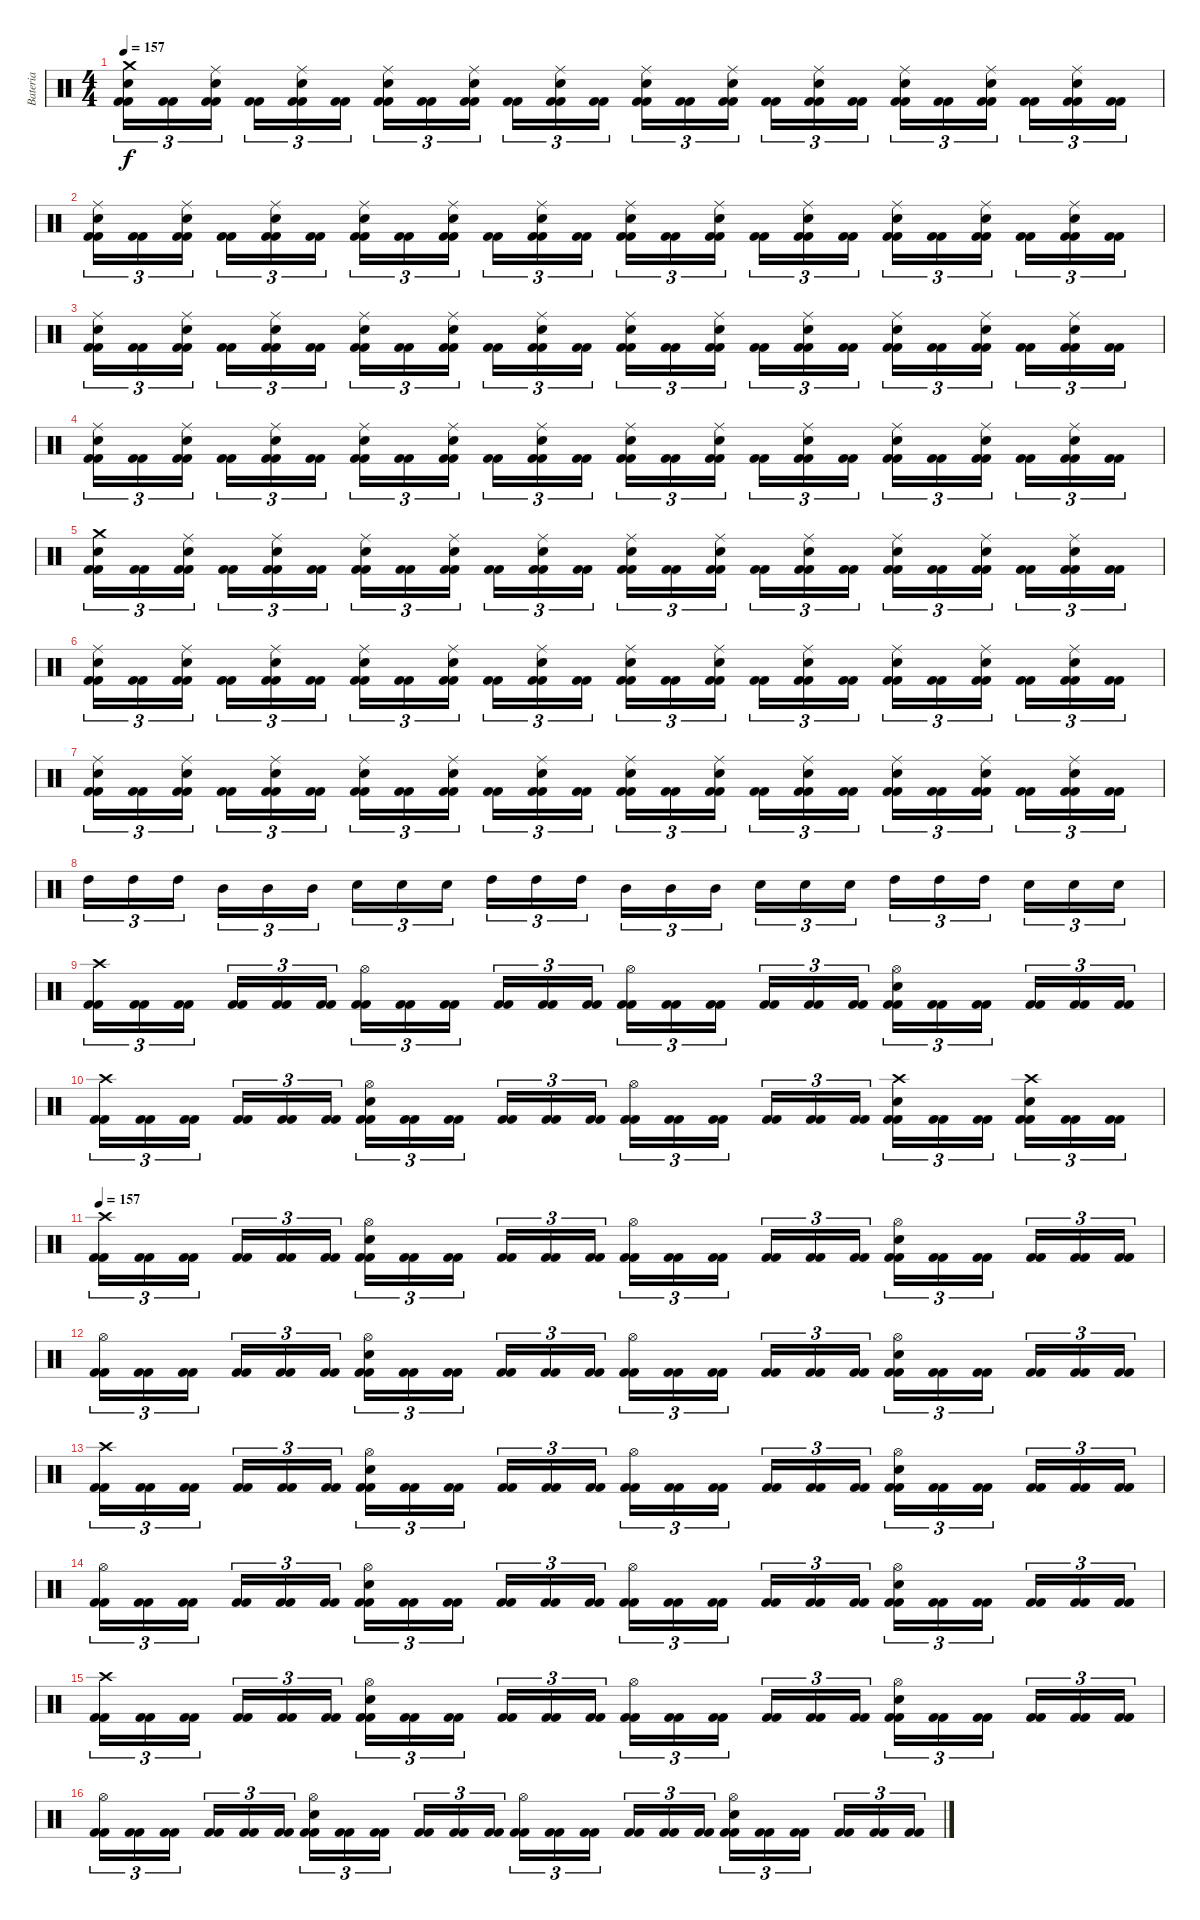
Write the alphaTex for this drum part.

\track ("Bateria" "Bateria") {instrument percussion}
\staff {score}
\articulation defaults
\ts (4 4)
\tempo 157
\clef neutral
\ks c
("Kick (hit) 2" "Kick (hit) 2" "Snare (hit) 2" "Crash medium (hit)").16{tu (3 2) dy f} ("Kick (hit) 2" "Kick (hit) 2").16{tu (3 2)} ("Kick (hit) 2" "Kick (hit) 2" "Snare (hit) 2" "Ride (middle)").16{tu (3 2)} ("Kick (hit) 2" "Kick (hit) 2").16{tu (3 2)} ("Kick (hit) 2" "Kick (hit) 2" "Snare (hit) 2" "Ride (middle)").16{tu (3 2)} ("Kick (hit) 2" "Kick (hit) 2").16{tu (3 2)} ("Kick (hit) 2" "Kick (hit) 2" "Snare (hit) 2" "Ride (middle)").16{tu (3 2)} ("Kick (hit) 2" "Kick (hit) 2").16{tu (3 2)} ("Kick (hit) 2" "Kick (hit) 2" "Snare (hit) 2" "Ride (middle)").16{tu (3 2)} ("Kick (hit) 2" "Kick (hit) 2").16{tu (3 2)} ("Kick (hit) 2" "Kick (hit) 2" "Snare (hit) 2" "Ride (middle)").16{tu (3 2)} ("Kick (hit) 2" "Kick (hit) 2").16{tu (3 2)} ("Kick (hit) 2" "Kick (hit) 2" "Snare (hit) 2" "Ride (middle)").16{tu (3 2)} ("Kick (hit) 2" "Kick (hit) 2").16{tu (3 2)} ("Kick (hit) 2" "Kick (hit) 2" "Snare (hit) 2" "Ride (middle)").16{tu (3 2)} ("Kick (hit) 2" "Kick (hit) 2").16{tu (3 2)} ("Kick (hit) 2" "Kick (hit) 2" "Snare (hit) 2" "Ride (middle)").16{tu (3 2)} ("Kick (hit) 2" "Kick (hit) 2").16{tu (3 2)} ("Kick (hit) 2" "Kick (hit) 2" "Snare (hit) 2" "Ride (middle)").16{tu (3 2)} ("Kick (hit) 2" "Kick (hit) 2").16{tu (3 2)} ("Kick (hit) 2" "Kick (hit) 2" "Snare (hit) 2" "Ride (middle)").16{tu (3 2)} ("Kick (hit) 2" "Kick (hit) 2").16{tu (3 2)} ("Kick (hit) 2" "Kick (hit) 2" "Snare (hit) 2" "Ride (middle)").16{tu (3 2)} ("Kick (hit) 2" "Kick (hit) 2").16{tu (3 2)} |
("Kick (hit) 2" "Kick (hit) 2" "Snare (hit) 2" "Ride (middle)").16{tu (3 2)} ("Kick (hit) 2" "Kick (hit) 2").16{tu (3 2)} ("Kick (hit) 2" "Kick (hit) 2" "Snare (hit) 2" "Ride (middle)").16{tu (3 2)} ("Kick (hit) 2" "Kick (hit) 2").16{tu (3 2)} ("Kick (hit) 2" "Kick (hit) 2" "Snare (hit) 2" "Ride (middle)").16{tu (3 2)} ("Kick (hit) 2" "Kick (hit) 2").16{tu (3 2)} ("Kick (hit) 2" "Kick (hit) 2" "Snare (hit) 2" "Ride (middle)").16{tu (3 2)} ("Kick (hit) 2" "Kick (hit) 2").16{tu (3 2)} ("Kick (hit) 2" "Kick (hit) 2" "Snare (hit) 2" "Ride (middle)").16{tu (3 2)} ("Kick (hit) 2" "Kick (hit) 2").16{tu (3 2)} ("Kick (hit) 2" "Kick (hit) 2" "Snare (hit) 2" "Ride (middle)").16{tu (3 2)} ("Kick (hit) 2" "Kick (hit) 2").16{tu (3 2)} ("Kick (hit) 2" "Kick (hit) 2" "Snare (hit) 2" "Ride (middle)").16{tu (3 2)} ("Kick (hit) 2" "Kick (hit) 2").16{tu (3 2)} ("Kick (hit) 2" "Kick (hit) 2" "Snare (hit) 2" "Ride (middle)").16{tu (3 2)} ("Kick (hit) 2" "Kick (hit) 2").16{tu (3 2)} ("Kick (hit) 2" "Kick (hit) 2" "Snare (hit) 2" "Ride (middle)").16{tu (3 2)} ("Kick (hit) 2" "Kick (hit) 2").16{tu (3 2)} ("Kick (hit) 2" "Kick (hit) 2" "Snare (hit) 2" "Ride (middle)").16{tu (3 2)} ("Kick (hit) 2" "Kick (hit) 2").16{tu (3 2)} ("Kick (hit) 2" "Kick (hit) 2" "Snare (hit) 2" "Ride (middle)").16{tu (3 2)} ("Kick (hit) 2" "Kick (hit) 2").16{tu (3 2)} ("Kick (hit) 2" "Kick (hit) 2" "Snare (hit) 2" "Ride (middle)").16{tu (3 2)} ("Kick (hit) 2" "Kick (hit) 2").16{tu (3 2)} |
("Kick (hit) 2" "Kick (hit) 2" "Snare (hit) 2" "Ride (middle)").16{tu (3 2)} ("Kick (hit) 2" "Kick (hit) 2").16{tu (3 2)} ("Kick (hit) 2" "Kick (hit) 2" "Snare (hit) 2" "Ride (middle)").16{tu (3 2)} ("Kick (hit) 2" "Kick (hit) 2").16{tu (3 2)} ("Kick (hit) 2" "Kick (hit) 2" "Snare (hit) 2" "Ride (middle)").16{tu (3 2)} ("Kick (hit) 2" "Kick (hit) 2").16{tu (3 2)} ("Kick (hit) 2" "Kick (hit) 2" "Snare (hit) 2" "Ride (middle)").16{tu (3 2)} ("Kick (hit) 2" "Kick (hit) 2").16{tu (3 2)} ("Kick (hit) 2" "Kick (hit) 2" "Snare (hit) 2" "Ride (middle)").16{tu (3 2)} ("Kick (hit) 2" "Kick (hit) 2").16{tu (3 2)} ("Kick (hit) 2" "Kick (hit) 2" "Snare (hit) 2" "Ride (middle)").16{tu (3 2)} ("Kick (hit) 2" "Kick (hit) 2").16{tu (3 2)} ("Kick (hit) 2" "Kick (hit) 2" "Snare (hit) 2" "Ride (middle)").16{tu (3 2)} ("Kick (hit) 2" "Kick (hit) 2").16{tu (3 2)} ("Kick (hit) 2" "Kick (hit) 2" "Snare (hit) 2" "Ride (middle)").16{tu (3 2)} ("Kick (hit) 2" "Kick (hit) 2").16{tu (3 2)} ("Kick (hit) 2" "Kick (hit) 2" "Snare (hit) 2" "Ride (middle)").16{tu (3 2)} ("Kick (hit) 2" "Kick (hit) 2").16{tu (3 2)} ("Kick (hit) 2" "Kick (hit) 2" "Snare (hit) 2" "Ride (middle)").16{tu (3 2)} ("Kick (hit) 2" "Kick (hit) 2").16{tu (3 2)} ("Kick (hit) 2" "Kick (hit) 2" "Snare (hit) 2" "Ride (middle)").16{tu (3 2)} ("Kick (hit) 2" "Kick (hit) 2").16{tu (3 2)} ("Kick (hit) 2" "Kick (hit) 2" "Snare (hit) 2" "Ride (middle)").16{tu (3 2)} ("Kick (hit) 2" "Kick (hit) 2").16{tu (3 2)} |
("Kick (hit) 2" "Kick (hit) 2" "Snare (hit) 2" "Ride (middle)").16{tu (3 2)} ("Kick (hit) 2" "Kick (hit) 2").16{tu (3 2)} ("Kick (hit) 2" "Kick (hit) 2" "Snare (hit) 2" "Ride (middle)").16{tu (3 2)} ("Kick (hit) 2" "Kick (hit) 2").16{tu (3 2)} ("Kick (hit) 2" "Kick (hit) 2" "Snare (hit) 2" "Ride (middle)").16{tu (3 2)} ("Kick (hit) 2" "Kick (hit) 2").16{tu (3 2)} ("Kick (hit) 2" "Kick (hit) 2" "Snare (hit) 2" "Ride (middle)").16{tu (3 2)} ("Kick (hit) 2" "Kick (hit) 2").16{tu (3 2)} ("Kick (hit) 2" "Kick (hit) 2" "Snare (hit) 2" "Ride (middle)").16{tu (3 2)} ("Kick (hit) 2" "Kick (hit) 2").16{tu (3 2)} ("Kick (hit) 2" "Kick (hit) 2" "Snare (hit) 2" "Ride (middle)").16{tu (3 2)} ("Kick (hit) 2" "Kick (hit) 2").16{tu (3 2)} ("Kick (hit) 2" "Kick (hit) 2" "Snare (hit) 2" "Ride (middle)").16{tu (3 2)} ("Kick (hit) 2" "Kick (hit) 2").16{tu (3 2)} ("Kick (hit) 2" "Kick (hit) 2" "Snare (hit) 2" "Ride (middle)").16{tu (3 2)} ("Kick (hit) 2" "Kick (hit) 2").16{tu (3 2)} ("Kick (hit) 2" "Kick (hit) 2" "Snare (hit) 2" "Ride (middle)").16{tu (3 2)} ("Kick (hit) 2" "Kick (hit) 2").16{tu (3 2)} ("Kick (hit) 2" "Kick (hit) 2" "Snare (hit) 2" "Ride (middle)").16{tu (3 2)} ("Kick (hit) 2" "Kick (hit) 2").16{tu (3 2)} ("Kick (hit) 2" "Kick (hit) 2" "Snare (hit) 2" "Ride (middle)").16{tu (3 2)} ("Kick (hit) 2" "Kick (hit) 2").16{tu (3 2)} ("Kick (hit) 2" "Kick (hit) 2" "Snare (hit) 2" "Ride (middle)").16{tu (3 2)} ("Kick (hit) 2" "Kick (hit) 2").16{tu (3 2)} |
("Kick (hit) 2" "Kick (hit) 2" "Snare (hit) 2" "Crash medium (hit)").16{tu (3 2)} ("Kick (hit) 2" "Kick (hit) 2").16{tu (3 2)} ("Kick (hit) 2" "Kick (hit) 2" "Snare (hit) 2" "Ride (middle)").16{tu (3 2)} ("Kick (hit) 2" "Kick (hit) 2").16{tu (3 2)} ("Kick (hit) 2" "Kick (hit) 2" "Snare (hit) 2" "Ride (middle)").16{tu (3 2)} ("Kick (hit) 2" "Kick (hit) 2").16{tu (3 2)} ("Kick (hit) 2" "Kick (hit) 2" "Snare (hit) 2" "Ride (middle)").16{tu (3 2)} ("Kick (hit) 2" "Kick (hit) 2").16{tu (3 2)} ("Kick (hit) 2" "Kick (hit) 2" "Snare (hit) 2" "Ride (middle)").16{tu (3 2)} ("Kick (hit) 2" "Kick (hit) 2").16{tu (3 2)} ("Kick (hit) 2" "Kick (hit) 2" "Snare (hit) 2" "Ride (middle)").16{tu (3 2)} ("Kick (hit) 2" "Kick (hit) 2").16{tu (3 2)} ("Kick (hit) 2" "Kick (hit) 2" "Snare (hit) 2" "Ride (middle)").16{tu (3 2)} ("Kick (hit) 2" "Kick (hit) 2").16{tu (3 2)} ("Kick (hit) 2" "Kick (hit) 2" "Snare (hit) 2" "Ride (middle)").16{tu (3 2)} ("Kick (hit) 2" "Kick (hit) 2").16{tu (3 2)} ("Kick (hit) 2" "Kick (hit) 2" "Snare (hit) 2" "Ride (middle)").16{tu (3 2)} ("Kick (hit) 2" "Kick (hit) 2").16{tu (3 2)} ("Kick (hit) 2" "Kick (hit) 2" "Snare (hit) 2" "Ride (middle)").16{tu (3 2)} ("Kick (hit) 2" "Kick (hit) 2").16{tu (3 2)} ("Kick (hit) 2" "Kick (hit) 2" "Snare (hit) 2" "Ride (middle)").16{tu (3 2)} ("Kick (hit) 2" "Kick (hit) 2").16{tu (3 2)} ("Kick (hit) 2" "Kick (hit) 2" "Snare (hit) 2" "Ride (middle)").16{tu (3 2)} ("Kick (hit) 2" "Kick (hit) 2").16{tu (3 2)} |
("Kick (hit) 2" "Kick (hit) 2" "Snare (hit) 2" "Ride (middle)").16{tu (3 2)} ("Kick (hit) 2" "Kick (hit) 2").16{tu (3 2)} ("Kick (hit) 2" "Kick (hit) 2" "Snare (hit) 2" "Ride (middle)").16{tu (3 2)} ("Kick (hit) 2" "Kick (hit) 2").16{tu (3 2)} ("Kick (hit) 2" "Kick (hit) 2" "Snare (hit) 2" "Ride (middle)").16{tu (3 2)} ("Kick (hit) 2" "Kick (hit) 2").16{tu (3 2)} ("Kick (hit) 2" "Kick (hit) 2" "Snare (hit) 2" "Ride (middle)").16{tu (3 2)} ("Kick (hit) 2" "Kick (hit) 2").16{tu (3 2)} ("Kick (hit) 2" "Kick (hit) 2" "Snare (hit) 2" "Ride (middle)").16{tu (3 2)} ("Kick (hit) 2" "Kick (hit) 2").16{tu (3 2)} ("Kick (hit) 2" "Kick (hit) 2" "Snare (hit) 2" "Ride (middle)").16{tu (3 2)} ("Kick (hit) 2" "Kick (hit) 2").16{tu (3 2)} ("Kick (hit) 2" "Kick (hit) 2" "Snare (hit) 2" "Ride (middle)").16{tu (3 2)} ("Kick (hit) 2" "Kick (hit) 2").16{tu (3 2)} ("Kick (hit) 2" "Kick (hit) 2" "Snare (hit) 2" "Ride (middle)").16{tu (3 2)} ("Kick (hit) 2" "Kick (hit) 2").16{tu (3 2)} ("Kick (hit) 2" "Kick (hit) 2" "Snare (hit) 2" "Ride (middle)").16{tu (3 2)} ("Kick (hit) 2" "Kick (hit) 2").16{tu (3 2)} ("Kick (hit) 2" "Kick (hit) 2" "Snare (hit) 2" "Ride (middle)").16{tu (3 2)} ("Kick (hit) 2" "Kick (hit) 2").16{tu (3 2)} ("Kick (hit) 2" "Kick (hit) 2" "Snare (hit) 2" "Ride (middle)").16{tu (3 2)} ("Kick (hit) 2" "Kick (hit) 2").16{tu (3 2)} ("Kick (hit) 2" "Kick (hit) 2" "Snare (hit) 2" "Ride (middle)").16{tu (3 2)} ("Kick (hit) 2" "Kick (hit) 2").16{tu (3 2)} |
("Kick (hit) 2" "Kick (hit) 2" "Snare (hit) 2" "Ride (middle)").16{tu (3 2)} ("Kick (hit) 2" "Kick (hit) 2").16{tu (3 2)} ("Kick (hit) 2" "Kick (hit) 2" "Snare (hit) 2" "Ride (middle)").16{tu (3 2)} ("Kick (hit) 2" "Kick (hit) 2").16{tu (3 2)} ("Kick (hit) 2" "Kick (hit) 2" "Snare (hit) 2" "Ride (middle)").16{tu (3 2)} ("Kick (hit) 2" "Kick (hit) 2").16{tu (3 2)} ("Kick (hit) 2" "Kick (hit) 2" "Snare (hit) 2" "Ride (middle)").16{tu (3 2)} ("Kick (hit) 2" "Kick (hit) 2").16{tu (3 2)} ("Kick (hit) 2" "Kick (hit) 2" "Snare (hit) 2" "Ride (middle)").16{tu (3 2)} ("Kick (hit) 2" "Kick (hit) 2").16{tu (3 2)} ("Kick (hit) 2" "Kick (hit) 2" "Snare (hit) 2" "Ride (middle)").16{tu (3 2)} ("Kick (hit) 2" "Kick (hit) 2").16{tu (3 2)} ("Kick (hit) 2" "Kick (hit) 2" "Snare (hit) 2" "Ride (middle)").16{tu (3 2)} ("Kick (hit) 2" "Kick (hit) 2").16{tu (3 2)} ("Kick (hit) 2" "Kick (hit) 2" "Snare (hit) 2" "Ride (middle)").16{tu (3 2)} ("Kick (hit) 2" "Kick (hit) 2").16{tu (3 2)} ("Kick (hit) 2" "Kick (hit) 2" "Snare (hit) 2" "Ride (middle)").16{tu (3 2)} ("Kick (hit) 2" "Kick (hit) 2").16{tu (3 2)} ("Kick (hit) 2" "Kick (hit) 2" "Snare (hit) 2" "Ride (middle)").16{tu (3 2)} ("Kick (hit) 2" "Kick (hit) 2").16{tu (3 2)} ("Kick (hit) 2" "Kick (hit) 2" "Snare (hit) 2" "Ride (middle)").16{tu (3 2)} ("Kick (hit) 2" "Kick (hit) 2").16{tu (3 2)} ("Kick (hit) 2" "Kick (hit) 2" "Snare (hit) 2" "Ride (middle)").16{tu (3 2)} ("Kick (hit) 2" "Kick (hit) 2").16{tu (3 2)} |
"High Tom (hit)".16{tu (3 2)} "High Tom (hit)".16{tu (3 2)} "High Tom (hit)".16{tu (3 2)} "Mid Tom (hit)".16{tu (3 2)} "Mid Tom (hit)".16{tu (3 2)} "Mid Tom (hit)".16{tu (3 2)} "Snare (hit) 2".16{tu (3 2)} "Snare (hit) 2".16{tu (3 2)} "Snare (hit) 2".16{tu (3 2)} "High Tom (hit)".16{tu (3 2)} "High Tom (hit)".16{tu (3 2)} "High Tom (hit)".16{tu (3 2)} "Mid Tom (hit)".16{tu (3 2)} "Mid Tom (hit)".16{tu (3 2)} "Mid Tom (hit)".16{tu (3 2)} "Snare (hit) 2".16{tu (3 2)} "Snare (hit) 2".16{tu (3 2)} "Snare (hit) 2".16{tu (3 2)} "High Tom (hit)".16{tu (3 2)} "High Tom (hit)".16{tu (3 2)} "High Tom (hit)".16{tu (3 2)} "Snare (hit) 2".16{tu (3 2)} "Snare (hit) 2".16{tu (3 2)} "Snare (hit) 2".16{tu (3 2)} |
("Kick (hit) 2" "Kick (hit) 2" "Crash high (hit)").16{tu (3 2)} ("Kick (hit) 2" "Kick (hit) 2").16{tu (3 2)} ("Kick (hit) 2" "Kick (hit) 2").16{tu (3 2)} ("Kick (hit) 2" "Kick (hit) 2").16{tu (3 2)} ("Kick (hit) 2" "Kick (hit) 2").16{tu (3 2)} ("Kick (hit) 2" "Kick (hit) 2").16{tu (3 2)} ("Kick (hit) 2" "Kick (hit) 2" "Hi-Hat (open)").16{tu (3 2)} ("Kick (hit) 2" "Kick (hit) 2").16{tu (3 2)} ("Kick (hit) 2" "Kick (hit) 2").16{tu (3 2)} ("Kick (hit) 2" "Kick (hit) 2").16{tu (3 2)} ("Kick (hit) 2" "Kick (hit) 2").16{tu (3 2)} ("Kick (hit) 2" "Kick (hit) 2").16{tu (3 2)} ("Kick (hit) 2" "Kick (hit) 2" "Hi-Hat (open)").16{tu (3 2)} ("Kick (hit) 2" "Kick (hit) 2").16{tu (3 2)} ("Kick (hit) 2" "Kick (hit) 2").16{tu (3 2)} ("Kick (hit) 2" "Kick (hit) 2").16{tu (3 2)} ("Kick (hit) 2" "Kick (hit) 2").16{tu (3 2)} ("Kick (hit) 2" "Kick (hit) 2").16{tu (3 2)} ("Kick (hit) 2" "Kick (hit) 2" "Snare (hit) 2" "Hi-Hat (open)").16{tu (3 2)} ("Kick (hit) 2" "Kick (hit) 2").16{tu (3 2)} ("Kick (hit) 2" "Kick (hit) 2").16{tu (3 2)} ("Kick (hit) 2" "Kick (hit) 2").16{tu (3 2)} ("Kick (hit) 2" "Kick (hit) 2").16{tu (3 2)} ("Kick (hit) 2" "Kick (hit) 2").16{tu (3 2)} |
("Kick (hit) 2" "Kick (hit) 2" "Crash high (hit)").16{tu (3 2)} ("Kick (hit) 2" "Kick (hit) 2").16{tu (3 2)} ("Kick (hit) 2" "Kick (hit) 2").16{tu (3 2)} ("Kick (hit) 2" "Kick (hit) 2").16{tu (3 2)} ("Kick (hit) 2" "Kick (hit) 2").16{tu (3 2)} ("Kick (hit) 2" "Kick (hit) 2").16{tu (3 2)} ("Kick (hit) 2" "Kick (hit) 2" "Snare (hit) 2" "Hi-Hat (open)").16{tu (3 2)} ("Kick (hit) 2" "Kick (hit) 2").16{tu (3 2)} ("Kick (hit) 2" "Kick (hit) 2").16{tu (3 2)} ("Kick (hit) 2" "Kick (hit) 2").16{tu (3 2)} ("Kick (hit) 2" "Kick (hit) 2").16{tu (3 2)} ("Kick (hit) 2" "Kick (hit) 2").16{tu (3 2)} ("Kick (hit) 2" "Kick (hit) 2" "Hi-Hat (open)").16{tu (3 2)} ("Kick (hit) 2" "Kick (hit) 2").16{tu (3 2)} ("Kick (hit) 2" "Kick (hit) 2").16{tu (3 2)} ("Kick (hit) 2" "Kick (hit) 2").16{tu (3 2)} ("Kick (hit) 2" "Kick (hit) 2").16{tu (3 2)} ("Kick (hit) 2" "Kick (hit) 2").16{tu (3 2)} ("Kick (hit) 2" "Kick (hit) 2" "Snare (hit) 2" "Crash high (hit)").16{tu (3 2)} ("Kick (hit) 2" "Kick (hit) 2").16{tu (3 2)} ("Kick (hit) 2" "Kick (hit) 2").16{tu (3 2)} ("Kick (hit) 2" "Kick (hit) 2" "Snare (hit) 2" "Crash high (hit)").16{tu (3 2)} ("Kick (hit) 2" "Kick (hit) 2").16{tu (3 2)} ("Kick (hit) 2" "Kick (hit) 2").16{tu (3 2)} |
\tempo 157
("Kick (hit) 2" "Kick (hit) 2" "Crash high (hit)").16{tu (3 2)} ("Kick (hit) 2" "Kick (hit) 2").16{tu (3 2)} ("Kick (hit) 2" "Kick (hit) 2").16{tu (3 2)} ("Kick (hit) 2" "Kick (hit) 2").16{tu (3 2)} ("Kick (hit) 2" "Kick (hit) 2").16{tu (3 2)} ("Kick (hit) 2" "Kick (hit) 2").16{tu (3 2)} ("Kick (hit) 2" "Kick (hit) 2" "Snare (hit) 2" "Hi-Hat (open)").16{tu (3 2)} ("Kick (hit) 2" "Kick (hit) 2").16{tu (3 2)} ("Kick (hit) 2" "Kick (hit) 2").16{tu (3 2)} ("Kick (hit) 2" "Kick (hit) 2").16{tu (3 2)} ("Kick (hit) 2" "Kick (hit) 2").16{tu (3 2)} ("Kick (hit) 2" "Kick (hit) 2").16{tu (3 2)} ("Kick (hit) 2" "Kick (hit) 2" "Hi-Hat (open)").16{tu (3 2)} ("Kick (hit) 2" "Kick (hit) 2").16{tu (3 2)} ("Kick (hit) 2" "Kick (hit) 2").16{tu (3 2)} ("Kick (hit) 2" "Kick (hit) 2").16{tu (3 2)} ("Kick (hit) 2" "Kick (hit) 2").16{tu (3 2)} ("Kick (hit) 2" "Kick (hit) 2").16{tu (3 2)} ("Kick (hit) 2" "Kick (hit) 2" "Snare (hit) 2" "Hi-Hat (open)").16{tu (3 2)} ("Kick (hit) 2" "Kick (hit) 2").16{tu (3 2)} ("Kick (hit) 2" "Kick (hit) 2").16{tu (3 2)} ("Kick (hit) 2" "Kick (hit) 2").16{tu (3 2)} ("Kick (hit) 2" "Kick (hit) 2").16{tu (3 2)} ("Kick (hit) 2" "Kick (hit) 2").16{tu (3 2)} |
("Kick (hit) 2" "Kick (hit) 2" "Hi-Hat (open)").16{tu (3 2)} ("Kick (hit) 2" "Kick (hit) 2").16{tu (3 2)} ("Kick (hit) 2" "Kick (hit) 2").16{tu (3 2)} ("Kick (hit) 2" "Kick (hit) 2").16{tu (3 2)} ("Kick (hit) 2" "Kick (hit) 2").16{tu (3 2)} ("Kick (hit) 2" "Kick (hit) 2").16{tu (3 2)} ("Kick (hit) 2" "Kick (hit) 2" "Snare (hit) 2" "Hi-Hat (open)").16{tu (3 2)} ("Kick (hit) 2" "Kick (hit) 2").16{tu (3 2)} ("Kick (hit) 2" "Kick (hit) 2").16{tu (3 2)} ("Kick (hit) 2" "Kick (hit) 2").16{tu (3 2)} ("Kick (hit) 2" "Kick (hit) 2").16{tu (3 2)} ("Kick (hit) 2" "Kick (hit) 2").16{tu (3 2)} ("Kick (hit) 2" "Kick (hit) 2" "Hi-Hat (open)").16{tu (3 2)} ("Kick (hit) 2" "Kick (hit) 2").16{tu (3 2)} ("Kick (hit) 2" "Kick (hit) 2").16{tu (3 2)} ("Kick (hit) 2" "Kick (hit) 2").16{tu (3 2)} ("Kick (hit) 2" "Kick (hit) 2").16{tu (3 2)} ("Kick (hit) 2" "Kick (hit) 2").16{tu (3 2)} ("Kick (hit) 2" "Kick (hit) 2" "Snare (hit) 2" "Hi-Hat (open)").16{tu (3 2)} ("Kick (hit) 2" "Kick (hit) 2").16{tu (3 2)} ("Kick (hit) 2" "Kick (hit) 2").16{tu (3 2)} ("Kick (hit) 2" "Kick (hit) 2").16{tu (3 2)} ("Kick (hit) 2" "Kick (hit) 2").16{tu (3 2)} ("Kick (hit) 2" "Kick (hit) 2").16{tu (3 2)} |
("Kick (hit) 2" "Kick (hit) 2" "Crash high (hit)").16{tu (3 2)} ("Kick (hit) 2" "Kick (hit) 2").16{tu (3 2)} ("Kick (hit) 2" "Kick (hit) 2").16{tu (3 2)} ("Kick (hit) 2" "Kick (hit) 2").16{tu (3 2)} ("Kick (hit) 2" "Kick (hit) 2").16{tu (3 2)} ("Kick (hit) 2" "Kick (hit) 2").16{tu (3 2)} ("Kick (hit) 2" "Kick (hit) 2" "Snare (hit) 2" "Hi-Hat (open)").16{tu (3 2)} ("Kick (hit) 2" "Kick (hit) 2").16{tu (3 2)} ("Kick (hit) 2" "Kick (hit) 2").16{tu (3 2)} ("Kick (hit) 2" "Kick (hit) 2").16{tu (3 2)} ("Kick (hit) 2" "Kick (hit) 2").16{tu (3 2)} ("Kick (hit) 2" "Kick (hit) 2").16{tu (3 2)} ("Kick (hit) 2" "Kick (hit) 2" "Hi-Hat (open)").16{tu (3 2)} ("Kick (hit) 2" "Kick (hit) 2").16{tu (3 2)} ("Kick (hit) 2" "Kick (hit) 2").16{tu (3 2)} ("Kick (hit) 2" "Kick (hit) 2").16{tu (3 2)} ("Kick (hit) 2" "Kick (hit) 2").16{tu (3 2)} ("Kick (hit) 2" "Kick (hit) 2").16{tu (3 2)} ("Kick (hit) 2" "Kick (hit) 2" "Snare (hit) 2" "Hi-Hat (open)").16{tu (3 2)} ("Kick (hit) 2" "Kick (hit) 2").16{tu (3 2)} ("Kick (hit) 2" "Kick (hit) 2").16{tu (3 2)} ("Kick (hit) 2" "Kick (hit) 2").16{tu (3 2)} ("Kick (hit) 2" "Kick (hit) 2").16{tu (3 2)} ("Kick (hit) 2" "Kick (hit) 2").16{tu (3 2)} |
("Kick (hit) 2" "Kick (hit) 2" "Hi-Hat (open)").16{tu (3 2)} ("Kick (hit) 2" "Kick (hit) 2").16{tu (3 2)} ("Kick (hit) 2" "Kick (hit) 2").16{tu (3 2)} ("Kick (hit) 2" "Kick (hit) 2").16{tu (3 2)} ("Kick (hit) 2" "Kick (hit) 2").16{tu (3 2)} ("Kick (hit) 2" "Kick (hit) 2").16{tu (3 2)} ("Kick (hit) 2" "Kick (hit) 2" "Snare (hit) 2" "Hi-Hat (open)").16{tu (3 2)} ("Kick (hit) 2" "Kick (hit) 2").16{tu (3 2)} ("Kick (hit) 2" "Kick (hit) 2").16{tu (3 2)} ("Kick (hit) 2" "Kick (hit) 2").16{tu (3 2)} ("Kick (hit) 2" "Kick (hit) 2").16{tu (3 2)} ("Kick (hit) 2" "Kick (hit) 2").16{tu (3 2)} ("Kick (hit) 2" "Kick (hit) 2" "Hi-Hat (open)").16{tu (3 2)} ("Kick (hit) 2" "Kick (hit) 2").16{tu (3 2)} ("Kick (hit) 2" "Kick (hit) 2").16{tu (3 2)} ("Kick (hit) 2" "Kick (hit) 2").16{tu (3 2)} ("Kick (hit) 2" "Kick (hit) 2").16{tu (3 2)} ("Kick (hit) 2" "Kick (hit) 2").16{tu (3 2)} ("Kick (hit) 2" "Kick (hit) 2" "Snare (hit) 2" "Hi-Hat (open)").16{tu (3 2)} ("Kick (hit) 2" "Kick (hit) 2").16{tu (3 2)} ("Kick (hit) 2" "Kick (hit) 2").16{tu (3 2)} ("Kick (hit) 2" "Kick (hit) 2").16{tu (3 2)} ("Kick (hit) 2" "Kick (hit) 2").16{tu (3 2)} ("Kick (hit) 2" "Kick (hit) 2").16{tu (3 2)} |
("Kick (hit) 2" "Kick (hit) 2" "Crash high (hit)").16{tu (3 2)} ("Kick (hit) 2" "Kick (hit) 2").16{tu (3 2)} ("Kick (hit) 2" "Kick (hit) 2").16{tu (3 2)} ("Kick (hit) 2" "Kick (hit) 2").16{tu (3 2)} ("Kick (hit) 2" "Kick (hit) 2").16{tu (3 2)} ("Kick (hit) 2" "Kick (hit) 2").16{tu (3 2)} ("Kick (hit) 2" "Kick (hit) 2" "Snare (hit) 2" "Hi-Hat (open)").16{tu (3 2)} ("Kick (hit) 2" "Kick (hit) 2").16{tu (3 2)} ("Kick (hit) 2" "Kick (hit) 2").16{tu (3 2)} ("Kick (hit) 2" "Kick (hit) 2").16{tu (3 2)} ("Kick (hit) 2" "Kick (hit) 2").16{tu (3 2)} ("Kick (hit) 2" "Kick (hit) 2").16{tu (3 2)} ("Kick (hit) 2" "Kick (hit) 2" "Hi-Hat (open)").16{tu (3 2)} ("Kick (hit) 2" "Kick (hit) 2").16{tu (3 2)} ("Kick (hit) 2" "Kick (hit) 2").16{tu (3 2)} ("Kick (hit) 2" "Kick (hit) 2").16{tu (3 2)} ("Kick (hit) 2" "Kick (hit) 2").16{tu (3 2)} ("Kick (hit) 2" "Kick (hit) 2").16{tu (3 2)} ("Kick (hit) 2" "Kick (hit) 2" "Snare (hit) 2" "Hi-Hat (open)").16{tu (3 2)} ("Kick (hit) 2" "Kick (hit) 2").16{tu (3 2)} ("Kick (hit) 2" "Kick (hit) 2").16{tu (3 2)} ("Kick (hit) 2" "Kick (hit) 2").16{tu (3 2)} ("Kick (hit) 2" "Kick (hit) 2").16{tu (3 2)} ("Kick (hit) 2" "Kick (hit) 2").16{tu (3 2)} |
("Kick (hit) 2" "Kick (hit) 2" "Hi-Hat (open)").16{tu (3 2)} ("Kick (hit) 2" "Kick (hit) 2").16{tu (3 2)} ("Kick (hit) 2" "Kick (hit) 2").16{tu (3 2)} ("Kick (hit) 2" "Kick (hit) 2").16{tu (3 2)} ("Kick (hit) 2" "Kick (hit) 2").16{tu (3 2)} ("Kick (hit) 2" "Kick (hit) 2").16{tu (3 2)} ("Kick (hit) 2" "Kick (hit) 2" "Snare (hit) 2" "Hi-Hat (open)").16{tu (3 2)} ("Kick (hit) 2" "Kick (hit) 2").16{tu (3 2)} ("Kick (hit) 2" "Kick (hit) 2").16{tu (3 2)} ("Kick (hit) 2" "Kick (hit) 2").16{tu (3 2)} ("Kick (hit) 2" "Kick (hit) 2").16{tu (3 2)} ("Kick (hit) 2" "Kick (hit) 2").16{tu (3 2)} ("Kick (hit) 2" "Kick (hit) 2" "Hi-Hat (open)").16{tu (3 2)} ("Kick (hit) 2" "Kick (hit) 2").16{tu (3 2)} ("Kick (hit) 2" "Kick (hit) 2").16{tu (3 2)} ("Kick (hit) 2" "Kick (hit) 2").16{tu (3 2)} ("Kick (hit) 2" "Kick (hit) 2").16{tu (3 2)} ("Kick (hit) 2" "Kick (hit) 2").16{tu (3 2)} ("Kick (hit) 2" "Kick (hit) 2" "Snare (hit) 2" "Hi-Hat (open)").16{tu (3 2)} ("Kick (hit) 2" "Kick (hit) 2").16{tu (3 2)} ("Kick (hit) 2" "Kick (hit) 2").16{tu (3 2)} ("Kick (hit) 2" "Kick (hit) 2").16{tu (3 2)} ("Kick (hit) 2" "Kick (hit) 2").16{tu (3 2)} ("Kick (hit) 2" "Kick (hit) 2").16{tu (3 2)}
